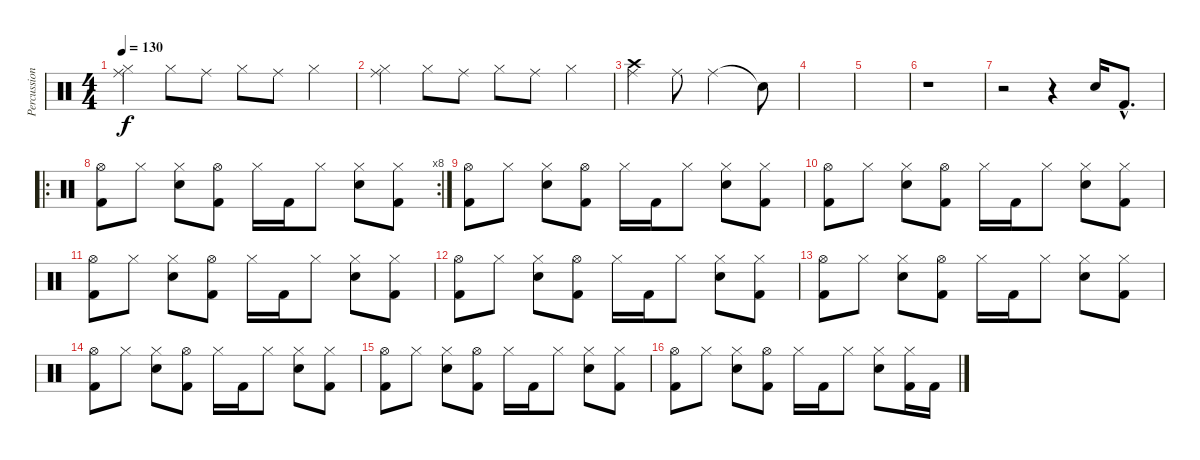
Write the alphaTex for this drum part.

\track ("Percussion" "Percussion") {instrument percussion}
\staff {score}
\articulation defaults
\ts (4 4)
\tempo 130
\clef neutral
\ks c
("Ride (middle)" "Hi-Hat (closed)").4{dy f} "Hi-Hat (closed)".8 "Ride (middle)".8 "Hi-Hat (closed)".8 "Ride (middle)".8 "Hi-Hat (closed)".4 |
("Ride (middle)" "Hi-Hat (closed)").4 "Hi-Hat (closed)".8 "Ride (middle)".8 "Hi-Hat (closed)".8 "Ride (middle)".8 "Hi-Hat (closed)".4 |
("Crash high (hit)" "Ride (middle)").4 "Ride (middle)".8 "Ride (middle)".2 "Snare (hit)"{t}.8 |
|
|
r.1 |
r.2 r.4 "Electric Snare (hit)".16 "Kick (hit) 2"{hac}.8{d} |
\ro
\rc 8
("Hi-Hat (open)" "Kick (hit) 2").8 "Hi-Hat (closed)".8 ("Hi-Hat (closed)" "Electric Snare (hit)").8 ("Hi-Hat (open)" "Kick (hit) 2").8 "Hi-Hat (closed)".16 "Kick (hit) 2".16 "Hi-Hat (closed)".8 ("Hi-Hat (closed)" "Electric Snare (hit)").8 ("Hi-Hat (closed)" "Kick (hit) 2").8 |
("Hi-Hat (open)" "Kick (hit) 2").8 "Hi-Hat (closed)".8 ("Hi-Hat (closed)" "Electric Snare (hit)").8 ("Hi-Hat (open)" "Kick (hit) 2").8 "Hi-Hat (closed)".16 "Kick (hit) 2".16 "Hi-Hat (closed)".8 ("Hi-Hat (closed)" "Electric Snare (hit)").8 ("Hi-Hat (closed)" "Kick (hit) 2").8 |
("Hi-Hat (open)" "Kick (hit) 2").8 "Hi-Hat (closed)".8 ("Hi-Hat (closed)" "Electric Snare (hit)").8 ("Hi-Hat (open)" "Kick (hit) 2").8 "Hi-Hat (closed)".16 "Kick (hit) 2".16 "Hi-Hat (closed)".8 ("Hi-Hat (closed)" "Electric Snare (hit)").8 ("Hi-Hat (closed)" "Kick (hit) 2").8 |
("Hi-Hat (open)" "Kick (hit) 2").8 "Hi-Hat (closed)".8 ("Hi-Hat (closed)" "Electric Snare (hit)").8 ("Hi-Hat (open)" "Kick (hit) 2").8 "Hi-Hat (closed)".16 "Kick (hit) 2".16 "Hi-Hat (closed)".8 ("Hi-Hat (closed)" "Electric Snare (hit)").8 ("Hi-Hat (closed)" "Kick (hit) 2").8 |
("Hi-Hat (open)" "Kick (hit) 2").8 "Hi-Hat (closed)".8 ("Hi-Hat (closed)" "Electric Snare (hit)").8 ("Hi-Hat (open)" "Kick (hit) 2").8 "Hi-Hat (closed)".16 "Kick (hit) 2".16 "Hi-Hat (closed)".8 ("Hi-Hat (closed)" "Electric Snare (hit)").8 ("Hi-Hat (closed)" "Kick (hit) 2").8 |
("Hi-Hat (open)" "Kick (hit) 2").8 "Hi-Hat (closed)".8 ("Hi-Hat (closed)" "Electric Snare (hit)").8 ("Hi-Hat (open)" "Kick (hit) 2").8 "Hi-Hat (closed)".16 "Kick (hit) 2".16 "Hi-Hat (closed)".8 ("Hi-Hat (closed)" "Electric Snare (hit)").8 ("Hi-Hat (closed)" "Kick (hit) 2").8 |
("Hi-Hat (open)" "Kick (hit) 2").8 "Hi-Hat (closed)".8 ("Hi-Hat (closed)" "Electric Snare (hit)").8 ("Hi-Hat (open)" "Kick (hit) 2").8 "Hi-Hat (closed)".16 "Kick (hit) 2".16 "Hi-Hat (closed)".8 ("Hi-Hat (closed)" "Electric Snare (hit)").8 ("Hi-Hat (closed)" "Kick (hit) 2").8 |
("Hi-Hat (open)" "Kick (hit) 2").8 "Hi-Hat (closed)".8 ("Hi-Hat (closed)" "Electric Snare (hit)").8 ("Hi-Hat (open)" "Kick (hit) 2").8 "Hi-Hat (closed)".16 "Kick (hit) 2".16 "Hi-Hat (closed)".8 ("Hi-Hat (closed)" "Electric Snare (hit)").8 ("Hi-Hat (closed)" "Kick (hit) 2").8 |
("Hi-Hat (open)" "Kick (hit) 2").8 "Hi-Hat (closed)".8 ("Hi-Hat (closed)" "Electric Snare (hit)").8 ("Hi-Hat (open)" "Kick (hit) 2").8 "Hi-Hat (closed)".16 "Kick (hit) 2".16 "Hi-Hat (closed)".8 ("Hi-Hat (closed)" "Electric Snare (hit)").8 ("Hi-Hat (closed)" "Kick (hit) 2").16 "Kick (hit) 2".16
